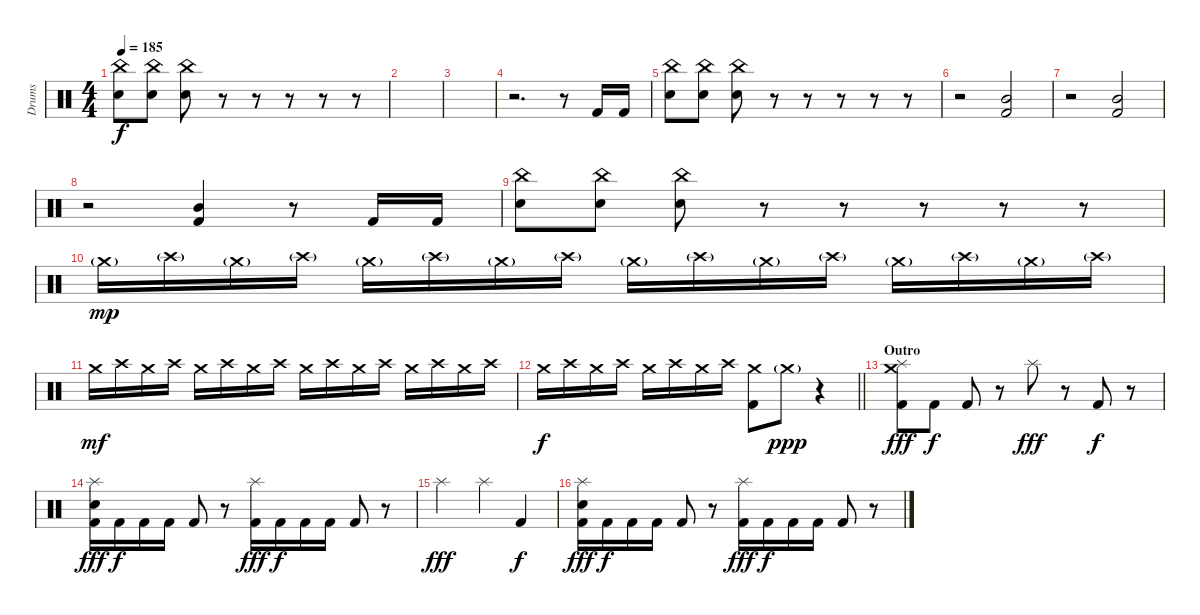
\track ("Drums" "Drums") {instrument percussion}
\staff {score}
\articulation defaults
\ts (4 4)
\tempo 185
\clef neutral
\ks c
("China (hit)" "Electric Snare (hit)").8{dy f} ("China (hit)" "Electric Snare (hit)").8 ("China (hit)" "Electric Snare (hit)").8 r.8 r.8 r.8 r.8 r.8 |
|
|
r.2{d} r.8 "Kick (hit) 2".16 "Kick (hit) 2".16 |
("China (hit)" "Electric Snare (hit)").8 ("China (hit)" "Electric Snare (hit)").8 ("China (hit)" "Electric Snare (hit)").8 r.8 r.8 r.8 r.8 r.8 |
r.2 ("Mid Tom (hit)" "Kick (hit) 2").2 |
r.2 ("Mid Tom (hit)" "Kick (hit) 2").2 |
r.2 ("Mid Tom (hit)" "Kick (hit) 2").4 r.8 "Kick (hit) 2".16 "Kick (hit) 2".16 |
("China (hit)" "Electric Snare (hit)").8 ("China (hit)" "Electric Snare (hit)").8 ("China (hit)" "Electric Snare (hit)").8 r.8 r.8 r.8 r.8 r.8 |
"Crash medium (hit)"{g}.16{dy mp} "Crash high (hit)"{g}.16 "Crash medium (hit)"{g}.16 "Crash high (hit)"{g}.16 "Crash medium (hit)"{g}.16 "Crash high (hit)"{g}.16 "Crash medium (hit)"{g}.16 "Crash high (hit)"{g}.16 "Crash medium (hit)"{g}.16 "Crash high (hit)"{g}.16 "Crash medium (hit)"{g}.16 "Crash high (hit)"{g}.16 "Crash medium (hit)"{g}.16 "Crash high (hit)"{g}.16 "Crash medium (hit)"{g}.16 "Crash high (hit)"{g}.16 |
"Crash medium (hit)".16{dy mf} "Crash high (hit)".16 "Crash medium (hit)".16 "Crash high (hit)".16 "Crash medium (hit)".16 "Crash high (hit)".16 "Crash medium (hit)".16 "Crash high (hit)".16 "Crash medium (hit)".16 "Crash high (hit)".16 "Crash medium (hit)".16 "Crash high (hit)".16 "Crash medium (hit)".16 "Crash high (hit)".16 "Crash medium (hit)".16 "Crash high (hit)".16 |
\barLineRight lightlight "Crash medium (hit)".16{dy f} "Crash high (hit)".16 "Crash medium (hit)".16 "Crash high (hit)".16 "Crash medium (hit)".16 "Crash high (hit)".16 "Crash medium (hit)".16 "Crash high (hit)".16
("Crash medium (hit)" "Kick (hit) 2").8 "Crash medium (hit)"{g}.8{dy ppp} r.4 |
\section ("" "Outro")
("Crash medium (hit)" "Splash (hit)" "Kick (hit) 2").8{dy fff} "Kick (hit) 2".8{dy f} "Kick (hit) 2".8 r.8 "Splash (hit)".8{dy fff} r.8 "Kick (hit) 2".8{dy f} r.8 |
("Splash (hit)" "Electric Snare (hit)" "Kick (hit) 2").16{dy fff} "Kick (hit) 2".16{dy f} "Kick (hit) 2".16 "Kick (hit) 2".16 "Kick (hit) 2".8 r.8 ("Splash (hit)" "Kick (hit) 2").16{dy fff} "Kick (hit) 2".16{dy f} "Kick (hit) 2".16 "Kick (hit) 2".16 "Kick (hit) 2".8 r.8 |
"Splash (hit)".2{dy fff} "Splash (hit)".4 "Kick (hit) 2".4{dy f} |
("Splash (hit)" "Electric Snare (hit)" "Kick (hit) 2").16{dy fff} "Kick (hit) 2".16{dy f} "Kick (hit) 2".16 "Kick (hit) 2".16 "Kick (hit) 2".8 r.8 ("Splash (hit)" "Kick (hit) 2").16{dy fff} "Kick (hit) 2".16{dy f} "Kick (hit) 2".16 "Kick (hit) 2".16 "Kick (hit) 2".8 r.8
